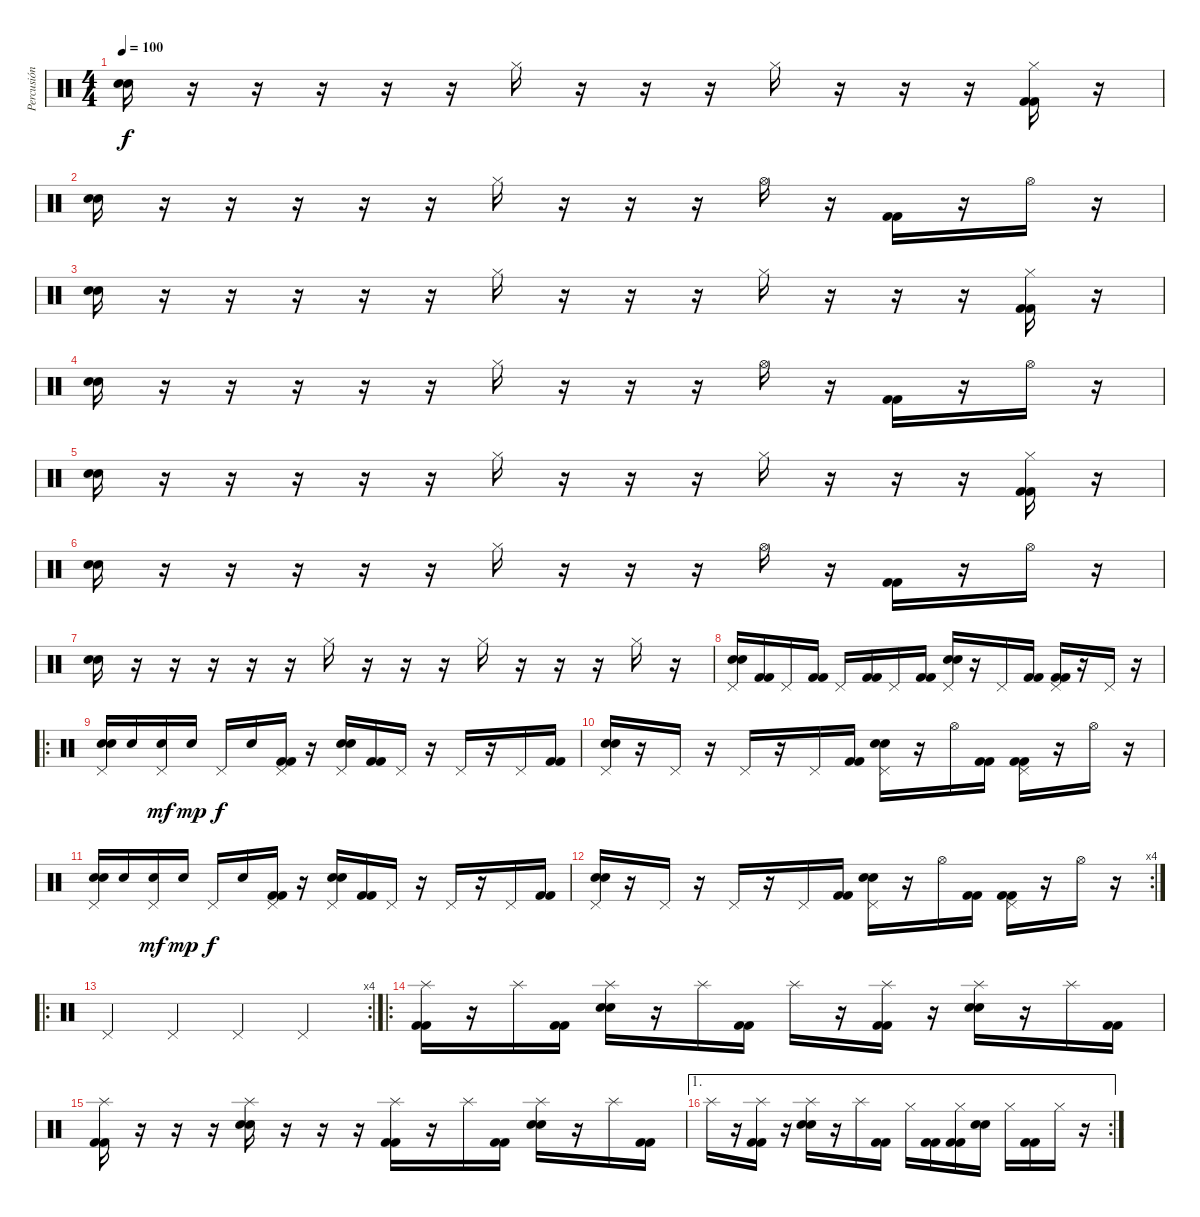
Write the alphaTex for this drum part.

\track ("Percusión" "Percusión") {instrument percussion}
\staff {score}
\articulation defaults
\ts (4 4)
\tempo 100
\clef neutral
\ks c
("Electric Snare (hit)" "Electric Snare (hit)").16{dy f} r.16 r.16 r.16 r.16 r.16 "Hi-Hat (closed)".16 r.16 r.16 r.16 "Hi-Hat (closed)".16 r.16 r.16 r.16 ("Hi-Hat (closed)" "Kick (hit) 2" "Kick (hit) 2").16 r.16 |
("Electric Snare (hit)" "Electric Snare (hit)").16 r.16 r.16 r.16 r.16 r.16 "Hi-Hat (closed)".16 r.16 r.16 r.16 "Hi-Hat (open)".16 r.16 ("Kick (hit) 2" "Kick (hit) 2").16 r.16 "Hi-Hat (open)".16 r.16 |
("Electric Snare (hit)" "Electric Snare (hit)").16 r.16 r.16 r.16 r.16 r.16 "Hi-Hat (closed)".16 r.16 r.16 r.16 "Hi-Hat (closed)".16 r.16 r.16 r.16 ("Hi-Hat (closed)" "Kick (hit) 2" "Kick (hit) 2").16 r.16 |
("Electric Snare (hit)" "Electric Snare (hit)").16 r.16 r.16 r.16 r.16 r.16 "Hi-Hat (closed)".16 r.16 r.16 r.16 "Hi-Hat (open)".16 r.16 ("Kick (hit) 2" "Kick (hit) 2").16 r.16 "Hi-Hat (open)".16 r.16 |
("Electric Snare (hit)" "Electric Snare (hit)").16 r.16 r.16 r.16 r.16 r.16 "Hi-Hat (closed)".16 r.16 r.16 r.16 "Hi-Hat (closed)".16 r.16 r.16 r.16 ("Hi-Hat (closed)" "Kick (hit) 2" "Kick (hit) 2").16 r.16 |
("Electric Snare (hit)" "Electric Snare (hit)").16 r.16 r.16 r.16 r.16 r.16 "Hi-Hat (closed)".16 r.16 r.16 r.16 "Hi-Hat (open)".16 r.16 ("Kick (hit) 2" "Kick (hit) 2").16 r.16 "Hi-Hat (open)".16 r.16 |
("Electric Snare (hit)" "Electric Snare (hit)").16 r.16 r.16 r.16 r.16 r.16 "Hi-Hat (closed)".16 r.16 r.16 r.16 "Hi-Hat (closed)".16 r.16 r.16 r.16 "Hi-Hat (closed)".16 r.16 |
("Pedal Hi-Hat (hit)" "Electric Snare (hit)" "Electric Snare (hit)").16 ("Kick (hit) 2" "Kick (hit) 2").16 "Pedal Hi-Hat (hit)".16 ("Kick (hit) 2" "Kick (hit) 2").16 "Pedal Hi-Hat (hit)".16 ("Kick (hit) 2" "Kick (hit) 2").16 "Pedal Hi-Hat (hit)".16 ("Kick (hit) 2" "Kick (hit) 2").16 ("Pedal Hi-Hat (hit)" "Electric Snare (hit)" "Electric Snare (hit)").16 r.16 "Pedal Hi-Hat (hit)".16 ("Kick (hit) 2" "Kick (hit) 2").16 ("Pedal Hi-Hat (hit)" "Kick (hit) 2" "Kick (hit) 2").16 r.16 "Pedal Hi-Hat (hit)".16 r.16 |
\ro
("Pedal Hi-Hat (hit)" "Electric Snare (hit)" "Electric Snare (hit)").16 "Electric Snare (hit)".16 ("Pedal Hi-Hat (hit)" "Electric Snare (hit)").16{dy mf} "Electric Snare (hit)".16{dy mp} "Pedal Hi-Hat (hit)".16{dy f} "Electric Snare (hit)".16 ("Pedal Hi-Hat (hit)" "Kick (hit) 2" "Kick (hit) 2").16 r.16 ("Pedal Hi-Hat (hit)" "Electric Snare (hit)" "Electric Snare (hit)").16 ("Kick (hit) 2" "Kick (hit) 2").16 "Pedal Hi-Hat (hit)".16 r.16 "Pedal Hi-Hat (hit)".16 r.16 "Pedal Hi-Hat (hit)".16 ("Kick (hit) 2" "Kick (hit) 2").16 |
("Pedal Hi-Hat (hit)" "Electric Snare (hit)" "Electric Snare (hit)").16 r.16 "Pedal Hi-Hat (hit)".16 r.16 "Pedal Hi-Hat (hit)".16 r.16 "Pedal Hi-Hat (hit)".16 ("Kick (hit) 2" "Kick (hit) 2").16 ("Pedal Hi-Hat (hit)" "Electric Snare (hit)" "Electric Snare (hit)").16 r.16 "Hi-Hat (open)".16 ("Kick (hit) 2" "Kick (hit) 2").16 ("Pedal Hi-Hat (hit)" "Kick (hit) 2" "Kick (hit) 2").16 r.16 "Hi-Hat (open)".16 r.16 |
("Pedal Hi-Hat (hit)" "Electric Snare (hit)" "Electric Snare (hit)").16 "Electric Snare (hit)".16 ("Pedal Hi-Hat (hit)" "Electric Snare (hit)").16{dy mf} "Electric Snare (hit)".16{dy mp} "Pedal Hi-Hat (hit)".16{dy f} "Electric Snare (hit)".16 ("Pedal Hi-Hat (hit)" "Kick (hit) 2" "Kick (hit) 2").16 r.16 ("Pedal Hi-Hat (hit)" "Electric Snare (hit)" "Electric Snare (hit)").16 ("Kick (hit) 2" "Kick (hit) 2").16 "Pedal Hi-Hat (hit)".16 r.16 "Pedal Hi-Hat (hit)".16 r.16 "Pedal Hi-Hat (hit)".16 ("Kick (hit) 2" "Kick (hit) 2").16 |
\rc 4
("Pedal Hi-Hat (hit)" "Electric Snare (hit)" "Electric Snare (hit)").16 r.16 "Pedal Hi-Hat (hit)".16 r.16 "Pedal Hi-Hat (hit)".16 r.16 "Pedal Hi-Hat (hit)".16 ("Kick (hit) 2" "Kick (hit) 2").16 ("Pedal Hi-Hat (hit)" "Electric Snare (hit)" "Electric Snare (hit)").16 r.16 "Hi-Hat (open)".16 ("Kick (hit) 2" "Kick (hit) 2").16 ("Pedal Hi-Hat (hit)" "Kick (hit) 2" "Kick (hit) 2").16 r.16 "Hi-Hat (open)".16 r.16 |
\ro
\rc 4 "Pedal Hi-Hat (hit)".4 "Pedal Hi-Hat (hit)".4 "Pedal Hi-Hat (hit)".4 "Pedal Hi-Hat (hit)".4
|
\ro
("Splash (hit)" "Kick (hit) 2" "Kick (hit) 2").16 r.16 "Splash (hit)".16 ("Kick (hit) 2" "Kick (hit) 2").16 ("Splash (hit)" "Electric Snare (hit)" "Electric Snare (hit)").16 r.16 "Splash (hit)".16 ("Kick (hit) 2" "Kick (hit) 2").16 "Splash (hit)".16 r.16 ("Splash (hit)" "Kick (hit) 2" "Kick (hit) 2").16 r.16 ("Splash (hit)" "Electric Snare (hit)" "Electric Snare (hit)").16 r.16 "Splash (hit)".16 ("Kick (hit) 2" "Kick (hit) 2").16 |
("Splash (hit)" "Kick (hit) 2" "Kick (hit) 2").16 r.16 r.16 r.16 ("Splash (hit)" "Electric Snare (hit)" "Electric Snare (hit)").16 r.16 r.16 r.16 ("Splash (hit)" "Kick (hit) 2" "Kick (hit) 2").16 r.16 "Splash (hit)".16 ("Kick (hit) 2" "Kick (hit) 2").16 ("Splash (hit)" "Electric Snare (hit)" "Electric Snare (hit)").16 r.16 "Splash (hit)".16 ("Kick (hit) 2" "Kick (hit) 2").16 |
\ae 1
\rc 2 "Splash (hit)".16
r.16 ("Splash (hit)" "Kick (hit) 2" "Kick (hit) 2").16 r.16 ("Splash (hit)" "Electric Snare (hit)" "Electric Snare (hit)").16 r.16 "Splash (hit)".16 ("Kick (hit) 2" "Kick (hit) 2").16 "Hi-Hat (closed)".16 ("Kick (hit) 2" "Kick (hit) 2").16 ("Hi-Hat (closed)" "Kick (hit) 2" "Kick (hit) 2").16 ("Electric Snare (hit)" "Electric Snare (hit)").16 "Hi-Hat (closed)".16 ("Kick (hit) 2" "Kick (hit) 2").16 "Hi-Hat (closed)".16 r.16
